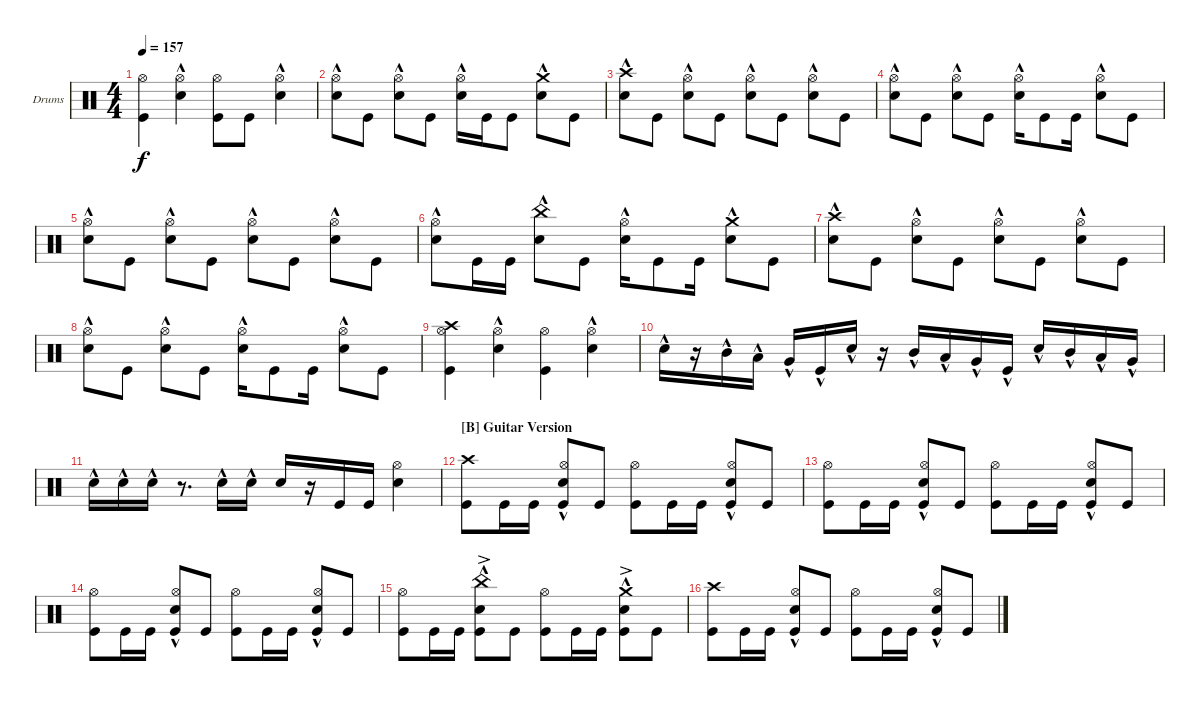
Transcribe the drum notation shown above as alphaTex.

\defaultSystemsLayout 4
\bracketExtendMode groupsimilarinstruments
\firstSystemTrackNameOrientation horizontal
\otherSystemsTrackNameOrientation horizontal
\track ("Drumkit - Natsu" "Drums") {instrument percussion}
\staff {score}
\articulation defaults
\ts (4 4)
\tempo 157
\clef neutral
\ks c
("Kick (hit)" "Hi-Hat (open)").4{dy f} ("Snare (hit) 2"{hac} "Hi-Hat (open)").4 ("Kick (hit)" "Hi-Hat (open)").8 "Kick (hit)".8 ("Snare (hit) 2"{hac} "Hi-Hat (open)").4 |
("Snare (hit) 2"{hac} "Hi-Hat (open)").8 "Kick (hit)".8 ("Snare (hit) 2"{hac} "Hi-Hat (open)").8 "Kick (hit)".8 ("Snare (hit) 2"{hac} "Hi-Hat (open)").16 "Kick (hit)".16 "Kick (hit)".8 ("Snare (hit) 2"{hac} "Crash medium (hit)"{hac}).8 "Kick (hit)".8 |
("Snare (hit) 2"{hac} "Crash high (hit)").8 "Kick (hit)".8 ("Snare (hit) 2"{hac} "Hi-Hat (open)").8 "Kick (hit)".8 ("Snare (hit) 2"{hac} "Hi-Hat (open)").8 "Kick (hit)".8 ("Snare (hit) 2"{hac} "Hi-Hat (open)").8 "Kick (hit)".8 |
("Snare (hit) 2"{hac} "Hi-Hat (open)").8 "Kick (hit)".8 ("Snare (hit) 2"{hac} "Hi-Hat (open)").8 "Kick (hit)".8 ("Snare (hit) 2"{hac} "Hi-Hat (open)").16 "Kick (hit)".8 "Kick (hit)".16 ("Snare (hit) 2"{hac} "Hi-Hat (open)").8 "Kick (hit)".8 |
("Snare (hit) 2"{hac} "Hi-Hat (open)").8 "Kick (hit)".8 ("Snare (hit) 2"{hac} "Hi-Hat (open)").8 "Kick (hit)".8 ("Snare (hit) 2"{hac} "Hi-Hat (open)").8 "Kick (hit)".8 ("Snare (hit) 2"{hac} "Hi-Hat (open)").8 "Kick (hit)".8 |
("Snare (hit) 2"{hac} "Hi-Hat (open)").8 "Kick (hit)".16 "Kick (hit)".16 ("Snare (hit) 2"{hac} "China (hit)"{hac}).8 "Kick (hit)".8 ("Snare (hit) 2"{hac} "Hi-Hat (open)").16 "Kick (hit)".8 "Kick (hit)".16 ("Snare (hit) 2"{hac} "Crash medium (hit)"{hac}).8 "Kick (hit)".8 |
("Snare (hit) 2"{hac} "Crash high (hit)").8 "Kick (hit)".8 ("Snare (hit) 2"{hac} "Hi-Hat (open)").8 "Kick (hit)".8 ("Snare (hit) 2"{hac} "Hi-Hat (open)").8 "Kick (hit)".8 ("Snare (hit) 2"{hac} "Hi-Hat (open)").8 "Kick (hit)".8 |
("Snare (hit) 2"{hac} "Hi-Hat (open)").8 "Kick (hit)".8 ("Snare (hit) 2"{hac} "Hi-Hat (open)").8 "Kick (hit)".8 ("Snare (hit) 2"{hac} "Hi-Hat (open)").16 "Kick (hit)".8 "Kick (hit)".16 ("Snare (hit) 2"{hac} "Hi-Hat (open)").8 "Kick (hit)".8 |
("Kick (hit)" "Hi-Hat (open)" "Crash high (hit)").4 ("Snare (hit) 2"{hac} "Hi-Hat (open)").4 ("Kick (hit)" "Hi-Hat (open)").4 ("Snare (hit) 2"{hac} "Hi-Hat (open)").4 |
"Snare (hit) 2"{hac}.16 r.16 "Mid Tom (hit)"{hac}.16 "Low Tom (hit)"{hac}.16 "Very Low Tom (hit)"{hac}.16 "Kick (hit)"{hac}.16 "Snare (hit) 2"{hac}.16 r.16 "Mid Tom (hit)"{hac}.16 "Low Tom (hit)"{hac}.16 "Very Low Tom (hit)"{hac}.16 "Kick (hit)"{hac}.16 "Snare (hit) 2"{hac}.16 "Mid Tom (hit)"{hac}.16 "Low Tom (hit)"{hac}.16 "Very Low Tom (hit)"{hac}.16 |
"Snare (hit) 2"{hac}.16 "Snare (hit) 2"{hac}.16 "Snare (hit) 2"{hac}.16 r.8{d} "Snare (hit) 2"{hac}.16 "Snare (hit) 2"{hac}.16 "Snare (hit) 2".16 r.16 "Kick (hit)".16 "Kick (hit)".16 ("Snare (hit) 2" "Hi-Hat (open)").4 |
\section ("B" "Guitar Version")
("Crash high (hit)" "Kick (hit)").8 "Kick (hit)".16 "Kick (hit)".16 ("Snare (hit) 2"{hac} "Hi-Hat (open)" "Kick (hit)").8 "Kick (hit)".8 ("Kick (hit)" "Hi-Hat (open)").8 "Kick (hit)".16 "Kick (hit)".16 ("Snare (hit) 2"{hac} "Hi-Hat (open)" "Kick (hit)").8 "Kick (hit)".8 |
("Kick (hit)" "Hi-Hat (open)").8 "Kick (hit)".16 "Kick (hit)".16 ("Snare (hit) 2"{hac} "Hi-Hat (open)" "Kick (hit)").8 "Kick (hit)".8 ("Kick (hit)" "Hi-Hat (open)").8 "Kick (hit)".16 "Kick (hit)".16 ("Snare (hit) 2"{hac} "Hi-Hat (open)" "Kick (hit)").8 "Kick (hit)".8 |
("Kick (hit)" "Hi-Hat (open)").8 "Kick (hit)".16 "Kick (hit)".16 ("Snare (hit) 2"{hac} "Hi-Hat (open)" "Kick (hit)").8 "Kick (hit)".8 ("Kick (hit)" "Hi-Hat (open)").8 "Kick (hit)".16 "Kick (hit)".16 ("Snare (hit) 2"{hac} "Hi-Hat (open)" "Kick (hit)").8 "Kick (hit)".8 |
("Kick (hit)" "Hi-Hat (open)").8 "Kick (hit)".16 "Kick (hit)".16 ("Snare (hit) 2"{hac} "China (hit)"{ac} "Kick (hit)").8 "Kick (hit)".8 ("Kick (hit)" "Hi-Hat (open)").8 "Kick (hit)".16 "Kick (hit)".16 ("Snare (hit) 2"{hac} "Crash medium (hit)"{ac} "Kick (hit)").8 "Kick (hit)".8 |
("Crash high (hit)" "Kick (hit)").8 "Kick (hit)".16 "Kick (hit)".16 ("Snare (hit) 2"{hac} "Hi-Hat (open)" "Kick (hit)").8 "Kick (hit)".8 ("Kick (hit)" "Hi-Hat (open)").8 "Kick (hit)".16 "Kick (hit)".16 ("Snare (hit) 2"{hac} "Hi-Hat (open)" "Kick (hit)").8 "Kick (hit)".8
